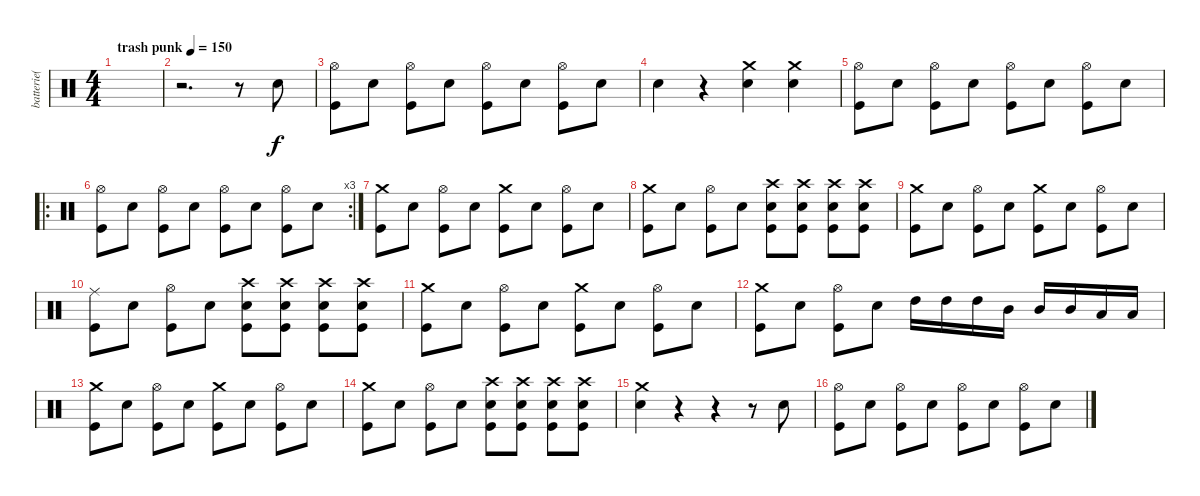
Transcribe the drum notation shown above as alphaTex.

\track ("batterie( Yureesh )" "batterie( ") {instrument percussion}
\staff {score}
\articulation defaults
\ts (4 4)
\tempo (150 "trash punk")
\clef neutral
\ks c
|
r.2{d} r.8 "Snare (hit) 2".8 |
("Hi-Hat (open)" "Kick (hit)").8 "Snare (hit) 2".8 ("Hi-Hat (open)" "Kick (hit)").8 "Snare (hit) 2".8 ("Hi-Hat (open)" "Kick (hit)").8 "Snare (hit) 2".8 ("Hi-Hat (open)" "Kick (hit)").8 "Snare (hit) 2".8 |
"Snare (hit) 2".4 r.4 ("Crash medium (hit)" "Snare (hit) 2").4 ("Crash medium (hit)" "Snare (hit) 2").4 |
("Hi-Hat (open)" "Kick (hit)").8 "Snare (hit) 2".8 ("Hi-Hat (open)" "Kick (hit)").8 "Snare (hit) 2".8 ("Hi-Hat (open)" "Kick (hit)").8 "Snare (hit) 2".8 ("Hi-Hat (open)" "Kick (hit)").8 "Snare (hit) 2".8 |
\ro
\rc 3
("Hi-Hat (open)" "Kick (hit)").8 "Snare (hit) 2".8 ("Hi-Hat (open)" "Kick (hit)").8 "Snare (hit) 2".8 ("Hi-Hat (open)" "Kick (hit)").8 "Snare (hit) 2".8 ("Hi-Hat (open)" "Kick (hit)").8 "Snare (hit) 2".8 |
("Crash medium (hit)" "Kick (hit)").8 "Snare (hit) 2".8 ("Hi-Hat (open)" "Kick (hit)").8 "Snare (hit) 2".8 ("Crash medium (hit)" "Kick (hit)").8 "Snare (hit) 2".8 ("Hi-Hat (open)" "Kick (hit)").8 "Snare (hit) 2".8 |
("Crash medium (hit)" "Kick (hit)").8 "Snare (hit) 2".8 ("Hi-Hat (open)" "Kick (hit)").8 "Snare (hit) 2".8 ("Crash high (hit)" "Snare (hit) 2" "Kick (hit)").8 ("Crash high (hit)" "Snare (hit) 2" "Kick (hit)").8 ("Crash high (hit)" "Snare (hit) 2" "Kick (hit)").8 ("Crash high (hit)" "Snare (hit) 2" "Kick (hit)").8 |
("Crash medium (hit)" "Kick (hit)").8 "Snare (hit) 2".8 ("Hi-Hat (open)" "Kick (hit)").8 "Snare (hit) 2".8 ("Crash medium (hit)" "Kick (hit)").8 "Snare (hit) 2".8 ("Hi-Hat (open)" "Kick (hit)").8 "Snare (hit) 2".8 |
("Ride (middle)" "Kick (hit)").8 "Snare (hit) 2".8 ("Hi-Hat (open)" "Kick (hit)").8 "Snare (hit) 2".8 ("Crash high (hit)" "Snare (hit) 2" "Kick (hit)").8 ("Crash high (hit)" "Snare (hit) 2" "Kick (hit)").8 ("Crash high (hit)" "Snare (hit) 2" "Kick (hit)").8 ("Crash high (hit)" "Snare (hit) 2" "Kick (hit)").8 |
("Crash medium (hit)" "Kick (hit)").8 "Snare (hit) 2".8 ("Hi-Hat (open)" "Kick (hit)").8 "Snare (hit) 2".8 ("Crash medium (hit)" "Kick (hit)").8 "Snare (hit) 2".8 ("Hi-Hat (open)" "Kick (hit)").8 "Snare (hit) 2".8 |
("Crash medium (hit)" "Kick (hit)").8 "Snare (hit) 2".8 ("Hi-Hat (open)" "Kick (hit)").8 "Snare (hit) 2".8 "High Tom (hit)".16 "High Tom (hit)".16 "High Tom (hit)".16 "Mid Tom (hit)".16 "Mid Tom (hit)".16 "Mid Tom (hit)".16 "Low Tom (hit)".16 "Low Tom (hit)".16 |
("Crash medium (hit)" "Kick (hit)").8 "Snare (hit) 2".8 ("Hi-Hat (open)" "Kick (hit)").8 "Snare (hit) 2".8 ("Crash medium (hit)" "Kick (hit)").8 "Snare (hit) 2".8 ("Hi-Hat (open)" "Kick (hit)").8 "Snare (hit) 2".8 |
("Crash medium (hit)" "Kick (hit)").8 "Snare (hit) 2".8 ("Hi-Hat (open)" "Kick (hit)").8 "Snare (hit) 2".8 ("Crash high (hit)" "Snare (hit) 2" "Kick (hit)").8 ("Crash high (hit)" "Snare (hit) 2" "Kick (hit)").8 ("Crash high (hit)" "Snare (hit) 2" "Kick (hit)").8 ("Crash high (hit)" "Snare (hit) 2" "Kick (hit)").8 |
("Crash medium (hit)" "Snare (hit) 2").4 r.4 r.4 r.8 "Snare (hit) 2".8 |
("Hi-Hat (open)" "Kick (hit)").8 "Snare (hit) 2".8 ("Hi-Hat (open)" "Kick (hit)").8 "Snare (hit) 2".8 ("Hi-Hat (open)" "Kick (hit)").8 "Snare (hit) 2".8 ("Hi-Hat (open)" "Kick (hit)").8 "Snare (hit) 2".8
